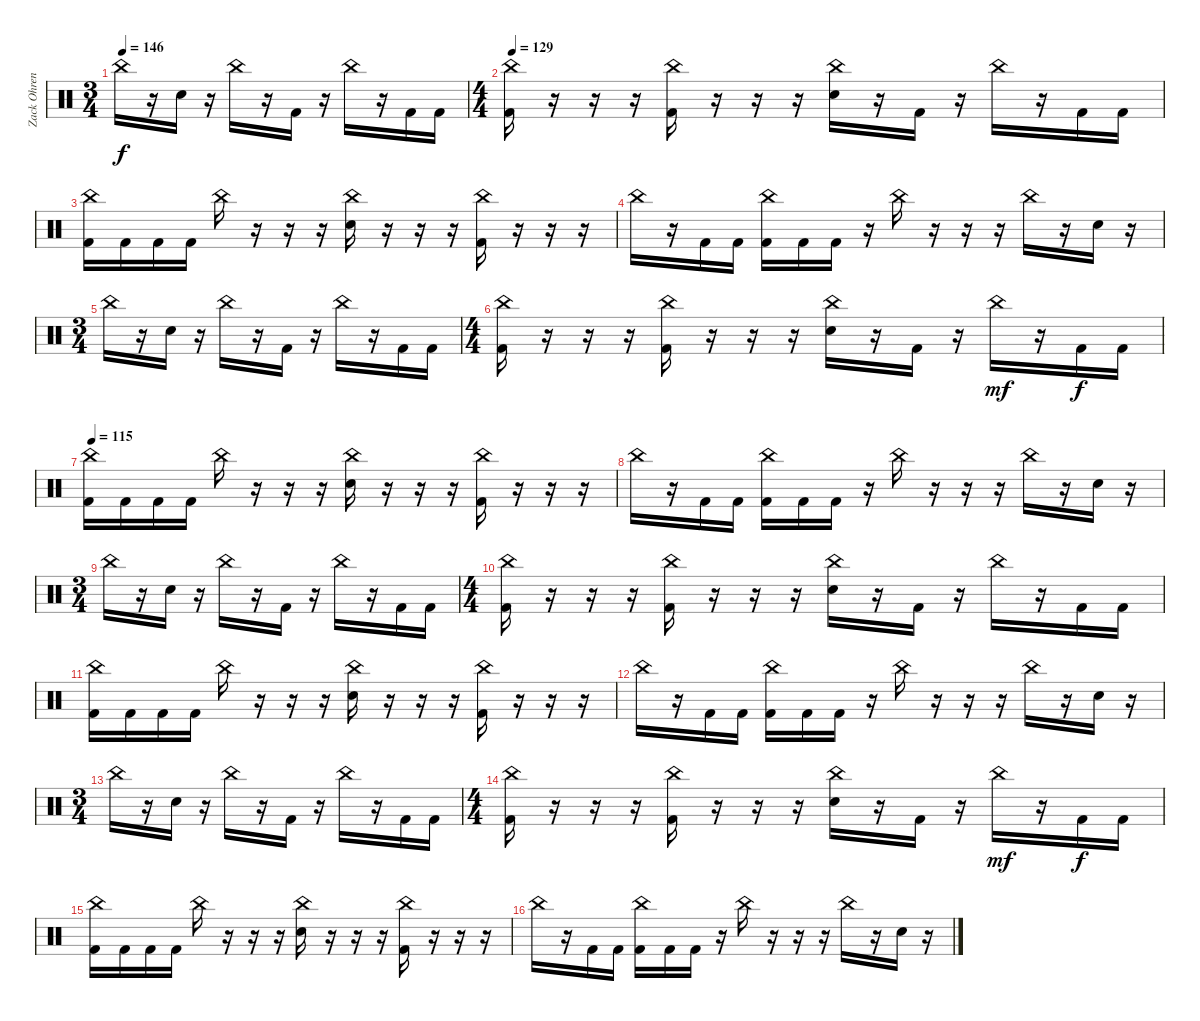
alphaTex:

\track ("Zack Ohren" "Zack Ohren") {instrument percussion}
\staff {score}
\articulation defaults
\ts (3 4)
\tempo 146
\clef neutral
\ks c "China (hit)".16{dy f}
r.16 "Electric Snare (hit)".16 r.16 "China (hit)".16 r.16 "Kick (hit) 2".16 r.16 "China (hit)".16 r.16 "Kick (hit) 2".16 "Kick (hit) 2".16 |
\ts (4 4)
\tempo 129
("Kick (hit) 2" "China (hit)").16 r.16 r.16 r.16 ("Kick (hit) 2" "China (hit)").16 r.16 r.16 r.16 ("Electric Snare (hit)" "China (hit)").16 r.16 "Kick (hit) 2".16 r.16 "China (hit)".16 r.16 "Kick (hit) 2".16 "Kick (hit) 2".16 |
("Kick (hit) 2" "China (hit)").16 "Kick (hit) 2".16 "Kick (hit) 2".16 "Kick (hit) 2".16 "China (hit)".16 r.16 r.16 r.16 ("Electric Snare (hit)" "China (hit)").16 r.16 r.16 r.16 ("Kick (hit) 2" "China (hit)").16 r.16 r.16 r.16 |
"China (hit)".16 r.16 "Kick (hit) 2".16 "Kick (hit) 2".16 ("Kick (hit) 2" "China (hit)").16 "Kick (hit) 2".16 "Kick (hit) 2".16 r.16 "China (hit)".16 r.16 r.16 r.16 "China (hit)".16 r.16 "Electric Snare (hit)".16 r.16 |
\ts (3 4)
"China (hit)".16 r.16 "Electric Snare (hit)".16 r.16 "China (hit)".16 r.16 "Kick (hit) 2".16 r.16 "China (hit)".16 r.16 "Kick (hit) 2".16 "Kick (hit) 2".16 |
\ts (4 4)
("Kick (hit) 2" "China (hit)").16 r.16 r.16 r.16 ("Kick (hit) 2" "China (hit)").16 r.16 r.16 r.16 ("Electric Snare (hit)" "China (hit)").16 r.16 "Kick (hit) 2".16 r.16 "China (hit)".16{dy mf} r.16 "Kick (hit) 2".16{dy f} "Kick (hit) 2".16 |
\tempo 115
("Kick (hit) 2" "China (hit)").16 "Kick (hit) 2".16 "Kick (hit) 2".16 "Kick (hit) 2".16 "China (hit)".16 r.16 r.16 r.16 ("Electric Snare (hit)" "China (hit)").16 r.16 r.16 r.16 ("Kick (hit) 2" "China (hit)").16 r.16 r.16 r.16 |
"China (hit)".16 r.16 "Kick (hit) 2".16 "Kick (hit) 2".16 ("Kick (hit) 2" "China (hit)").16 "Kick (hit) 2".16 "Kick (hit) 2".16 r.16 "China (hit)".16 r.16 r.16 r.16 "China (hit)".16 r.16 "Electric Snare (hit)".16 r.16 |
\ts (3 4)
"China (hit)".16 r.16 "Electric Snare (hit)".16 r.16 "China (hit)".16 r.16 "Kick (hit) 2".16 r.16 "China (hit)".16 r.16 "Kick (hit) 2".16 "Kick (hit) 2".16 |
\ts (4 4)
("Kick (hit) 2" "China (hit)").16 r.16 r.16 r.16 ("Kick (hit) 2" "China (hit)").16 r.16 r.16 r.16 ("Electric Snare (hit)" "China (hit)").16 r.16 "Kick (hit) 2".16 r.16 "China (hit)".16 r.16 "Kick (hit) 2".16 "Kick (hit) 2".16 |
("Kick (hit) 2" "China (hit)").16 "Kick (hit) 2".16 "Kick (hit) 2".16 "Kick (hit) 2".16 "China (hit)".16 r.16 r.16 r.16 ("Electric Snare (hit)" "China (hit)").16 r.16 r.16 r.16 ("Kick (hit) 2" "China (hit)").16 r.16 r.16 r.16 |
"China (hit)".16 r.16 "Kick (hit) 2".16 "Kick (hit) 2".16 ("Kick (hit) 2" "China (hit)").16 "Kick (hit) 2".16 "Kick (hit) 2".16 r.16 "China (hit)".16 r.16 r.16 r.16 "China (hit)".16 r.16 "Electric Snare (hit)".16 r.16 |
\ts (3 4)
"China (hit)".16 r.16 "Electric Snare (hit)".16 r.16 "China (hit)".16 r.16 "Kick (hit) 2".16 r.16 "China (hit)".16 r.16 "Kick (hit) 2".16 "Kick (hit) 2".16 |
\ts (4 4)
("Kick (hit) 2" "China (hit)").16 r.16 r.16 r.16 ("Kick (hit) 2" "China (hit)").16 r.16 r.16 r.16 ("Electric Snare (hit)" "China (hit)").16 r.16 "Kick (hit) 2".16 r.16 "China (hit)".16{dy mf} r.16 "Kick (hit) 2".16{dy f} "Kick (hit) 2".16 |
("Kick (hit) 2" "China (hit)").16 "Kick (hit) 2".16 "Kick (hit) 2".16 "Kick (hit) 2".16 "China (hit)".16 r.16 r.16 r.16 ("Electric Snare (hit)" "China (hit)").16 r.16 r.16 r.16 ("Kick (hit) 2" "China (hit)").16 r.16 r.16 r.16 |
"China (hit)".16 r.16 "Kick (hit) 2".16 "Kick (hit) 2".16 ("Kick (hit) 2" "China (hit)").16 "Kick (hit) 2".16 "Kick (hit) 2".16 r.16 "China (hit)".16 r.16 r.16 r.16 "China (hit)".16 r.16 "Electric Snare (hit)".16 r.16
